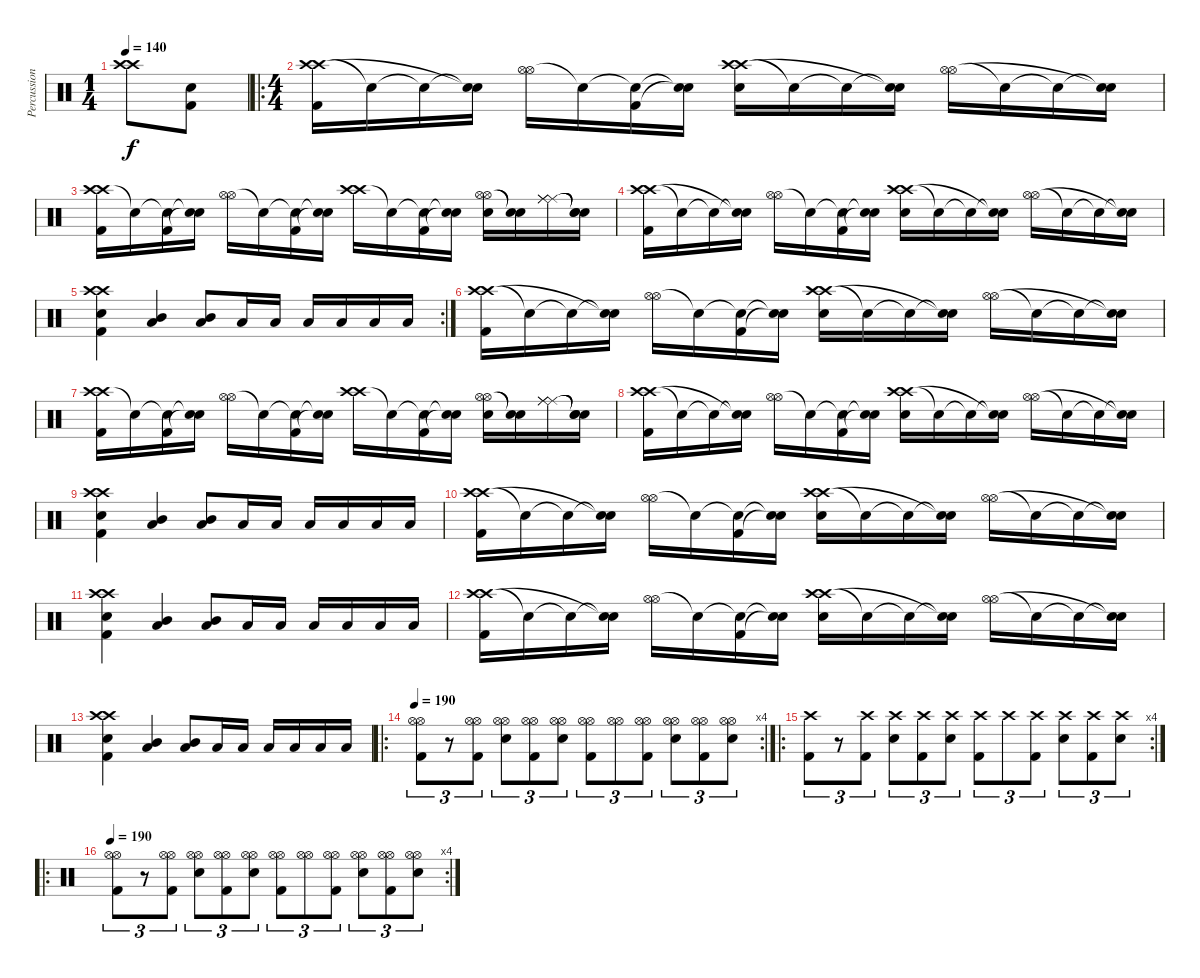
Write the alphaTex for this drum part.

\track ("Percussion" "Percussion") {instrument percussion}
\staff {score}
\articulation defaults
\ts (1 4)
\tempo 140
\clef neutral
\ks c
("Crash high (hit)" "Crash high (hit)").8{dy f} ("Electric Snare (hit)" "Kick (hit) 2").8 |
\ro
\ts (4 4)
("Crash high (hit)" "Crash high (hit)" "Kick (hit) 2").16{volume 12} "Snare (hit)"{t}.16 "Snare (hit)"{t}.16 ("Snare (hit)"{t} "Snare (hit)"{t}).16 ("Hi-Hat (open)" "Hi-Hat (open)").16 "Snare (hit)"{t}.16 ("Snare (hit)"{t} "Kick (hit) 2").16 ("Snare (hit)"{t} "Snare (hit)"{t}).16 ("Crash high (hit)" "Crash high (hit)" "Electric Snare (hit)").16 "Snare (hit)"{t}.16 "Snare (hit)"{t}.16 ("Snare (hit)"{t} "Snare (hit)"{t}).16 ("Hi-Hat (open)" "Hi-Hat (open)").16 "Snare (hit)"{t}.16 "Snare (hit)"{t}.16 ("Snare (hit)"{t} "Snare (hit)"{t}).16 |
("Crash high (hit)" "Crash high (hit)" "Kick (hit) 2").16 "Snare (hit)"{t}.16 ("Snare (hit)"{t} "Kick (hit) 2").16 ("Snare (hit)"{t} "Snare (hit)"{t}).16 ("Hi-Hat (open)" "Hi-Hat (open)").16 "Snare (hit)"{t}.16 ("Snare (hit)"{t} "Kick (hit) 2").16 ("Snare (hit)"{t} "Snare (hit)"{t}).16 ("Crash high (hit)" "Crash high (hit)").16 "Snare (hit)"{t}.16 ("Snare (hit)"{t} "Kick (hit) 2").16 ("Snare (hit)"{t} "Snare (hit)"{t}).16 ("Hi-Hat (open)" "Hi-Hat (open)" "Electric Snare (hit)").16 ("Snare (hit)"{t} "Snare (hit)"{t}).16 ("Ride (middle)" "Ride (middle)" "Ride (middle)").16 ("Snare (hit)"{t} "Snare (hit)"{t} "Snare (hit)"{t}).16 |
("Crash high (hit)" "Crash high (hit)" "Kick (hit) 2").16 "Snare (hit)"{t}.16 "Snare (hit)"{t}.16 ("Snare (hit)"{t} "Snare (hit)"{t}).16 ("Hi-Hat (open)" "Hi-Hat (open)").16 "Snare (hit)"{t}.16 ("Snare (hit)"{t} "Kick (hit) 2").16 ("Snare (hit)"{t} "Snare (hit)"{t}).16 ("Crash high (hit)" "Crash high (hit)" "Electric Snare (hit)").16 "Snare (hit)"{t}.16 "Snare (hit)"{t}.16 ("Snare (hit)"{t} "Snare (hit)"{t}).16 ("Hi-Hat (open)" "Hi-Hat (open)").16 "Snare (hit)"{t}.16 "Snare (hit)"{t}.16 ("Snare (hit)"{t} "Snare (hit)"{t}).16 |
\rc 2
("Crash high (hit)" "Crash high (hit)" "Electric Snare (hit)" "Kick (hit) 2").4 ("Low Tom (hit)" "Mid Tom (hit)").4 ("Low Tom (hit)" "Mid Tom (hit)").8 "Low Floor Tom (hit)".16 "Low Floor Tom (hit)".16 "Low Floor Tom (hit)".16 "Low Floor Tom (hit)".16 "Low Floor Tom (hit)".16 "Low Floor Tom (hit)".16 |
("Crash high (hit)" "Crash high (hit)" "Kick (hit) 2").16{volume 14} "Snare (hit)"{t}.16 "Snare (hit)"{t}.16 ("Snare (hit)"{t} "Snare (hit)"{t}).16 ("Hi-Hat (open)" "Hi-Hat (open)").16 "Snare (hit)"{t}.16 ("Snare (hit)"{t} "Kick (hit) 2").16 ("Snare (hit)"{t} "Snare (hit)"{t}).16 ("Crash high (hit)" "Crash high (hit)" "Electric Snare (hit)").16 "Snare (hit)"{t}.16 "Snare (hit)"{t}.16 ("Snare (hit)"{t} "Snare (hit)"{t}).16 ("Hi-Hat (open)" "Hi-Hat (open)").16 "Snare (hit)"{t}.16 "Snare (hit)"{t}.16 ("Snare (hit)"{t} "Snare (hit)"{t}).16 |
("Crash high (hit)" "Crash high (hit)" "Kick (hit) 2").16 "Snare (hit)"{t}.16 ("Snare (hit)"{t} "Kick (hit) 2").16 ("Snare (hit)"{t} "Snare (hit)"{t}).16 ("Hi-Hat (open)" "Hi-Hat (open)").16 "Snare (hit)"{t}.16 ("Snare (hit)"{t} "Kick (hit) 2").16 ("Snare (hit)"{t} "Snare (hit)"{t}).16 ("Crash high (hit)" "Crash high (hit)").16 "Snare (hit)"{t}.16 ("Snare (hit)"{t} "Kick (hit) 2").16 ("Snare (hit)"{t} "Snare (hit)"{t}).16 ("Hi-Hat (open)" "Hi-Hat (open)" "Electric Snare (hit)").16 ("Snare (hit)"{t} "Snare (hit)"{t}).16 ("Ride (middle)" "Ride (middle)" "Ride (middle)").16 ("Snare (hit)"{t} "Snare (hit)"{t} "Snare (hit)"{t}).16 |
("Crash high (hit)" "Crash high (hit)" "Kick (hit) 2").16 "Snare (hit)"{t}.16 "Snare (hit)"{t}.16 ("Snare (hit)"{t} "Snare (hit)"{t}).16 ("Hi-Hat (open)" "Hi-Hat (open)").16 "Snare (hit)"{t}.16 ("Snare (hit)"{t} "Kick (hit) 2").16 ("Snare (hit)"{t} "Snare (hit)"{t}).16 ("Crash high (hit)" "Crash high (hit)" "Electric Snare (hit)").16 "Snare (hit)"{t}.16 "Snare (hit)"{t}.16 ("Snare (hit)"{t} "Snare (hit)"{t}).16 ("Hi-Hat (open)" "Hi-Hat (open)").16 "Snare (hit)"{t}.16 "Snare (hit)"{t}.16 ("Snare (hit)"{t} "Snare (hit)"{t}).16 |
("Crash high (hit)" "Crash high (hit)" "Electric Snare (hit)" "Kick (hit) 2").4 ("Low Tom (hit)" "Mid Tom (hit)").4 ("Low Tom (hit)" "Mid Tom (hit)").8 "Low Floor Tom (hit)".16 "Low Floor Tom (hit)".16 "Low Floor Tom (hit)".16 "Low Floor Tom (hit)".16 "Low Floor Tom (hit)".16 "Low Floor Tom (hit)".16 |
("Crash high (hit)" "Crash high (hit)" "Kick (hit) 2").16{volume 14} "Snare (hit)"{t}.16 "Snare (hit)"{t}.16 ("Snare (hit)"{t} "Snare (hit)"{t}).16 ("Hi-Hat (open)" "Hi-Hat (open)").16 "Snare (hit)"{t}.16 ("Snare (hit)"{t} "Kick (hit) 2").16 ("Snare (hit)"{t} "Snare (hit)"{t}).16 ("Crash high (hit)" "Crash high (hit)" "Electric Snare (hit)").16 "Snare (hit)"{t}.16 "Snare (hit)"{t}.16 ("Snare (hit)"{t} "Snare (hit)"{t}).16 ("Hi-Hat (open)" "Hi-Hat (open)").16 "Snare (hit)"{t}.16 "Snare (hit)"{t}.16 ("Snare (hit)"{t} "Snare (hit)"{t}).16 |
("Crash high (hit)" "Crash high (hit)" "Electric Snare (hit)" "Kick (hit) 2").4 ("Low Tom (hit)" "Mid Tom (hit)").4 ("Low Tom (hit)" "Mid Tom (hit)").8 "Low Floor Tom (hit)".16 "Low Floor Tom (hit)".16 "Low Floor Tom (hit)".16 "Low Floor Tom (hit)".16 "Low Floor Tom (hit)".16 "Low Floor Tom (hit)".16 |
("Crash high (hit)" "Crash high (hit)" "Kick (hit) 2").16{volume 14} "Snare (hit)"{t}.16 "Snare (hit)"{t}.16 ("Snare (hit)"{t} "Snare (hit)"{t}).16 ("Hi-Hat (open)" "Hi-Hat (open)").16 "Snare (hit)"{t}.16 ("Snare (hit)"{t} "Kick (hit) 2").16 ("Snare (hit)"{t} "Snare (hit)"{t}).16 ("Crash high (hit)" "Crash high (hit)" "Electric Snare (hit)").16 "Snare (hit)"{t}.16 "Snare (hit)"{t}.16 ("Snare (hit)"{t} "Snare (hit)"{t}).16 ("Hi-Hat (open)" "Hi-Hat (open)").16 "Snare (hit)"{t}.16 "Snare (hit)"{t}.16 ("Snare (hit)"{t} "Snare (hit)"{t}).16 |
("Crash high (hit)" "Crash high (hit)" "Electric Snare (hit)" "Kick (hit) 2").4 ("Low Tom (hit)" "Mid Tom (hit)").4 ("Low Tom (hit)" "Mid Tom (hit)").8 "Low Floor Tom (hit)".16 "Low Floor Tom (hit)".16 "Low Floor Tom (hit)".16 "Low Floor Tom (hit)".16 "Low Floor Tom (hit)".16 "Low Floor Tom (hit)".16 |
\ro
\rc 4
\tempo 190
("Hi-Hat (open)" "Hi-Hat (open)" "Kick (hit) 2").8{tu (3 2)} r.8{tu (3 2)} ("Hi-Hat (open)" "Hi-Hat (open)" "Kick (hit) 2").8{tu (3 2)} ("Hi-Hat (open)" "Hi-Hat (open)" "Electric Snare (hit)").8{tu (3 2)} ("Hi-Hat (open)" "Hi-Hat (open)" "Kick (hit) 2").8{tu (3 2)} ("Hi-Hat (open)" "Hi-Hat (open)" "Electric Snare (hit)").8{tu (3 2)} ("Hi-Hat (open)" "Hi-Hat (open)" "Kick (hit) 2").8{tu (3 2)} ("Hi-Hat (open)" "Hi-Hat (open)").8{tu (3 2)} ("Hi-Hat (open)" "Hi-Hat (open)" "Kick (hit) 2").8{tu (3 2)} ("Hi-Hat (open)" "Hi-Hat (open)" "Electric Snare (hit)").8{tu (3 2)} ("Hi-Hat (open)" "Hi-Hat (open)" "Kick (hit) 2").8{tu (3 2)} ("Hi-Hat (open)" "Hi-Hat (open)" "Electric Snare (hit)").8{tu (3 2)} |
\ro
\rc 4
("Crash high (hit)" "Kick (hit) 2").8{tu (3 2)} r.8{tu (3 2)} ("Crash high (hit)" "Kick (hit) 2").8{tu (3 2)} ("Crash high (hit)" "Electric Snare (hit)").8{tu (3 2)} ("Crash high (hit)" "Kick (hit) 2").8{tu (3 2)} ("Crash high (hit)" "Electric Snare (hit)").8{tu (3 2)} ("Crash high (hit)" "Kick (hit) 2").8{tu (3 2)} "Crash high (hit)".8{tu (3 2)} ("Crash high (hit)" "Kick (hit) 2").8{tu (3 2)} ("Crash high (hit)" "Electric Snare (hit)").8{tu (3 2)} ("Crash high (hit)" "Kick (hit) 2").8{tu (3 2)} ("Crash high (hit)" "Electric Snare (hit)").8{tu (3 2)} |
\ro
\rc 4
\tempo 190
("Hi-Hat (open)" "Hi-Hat (open)" "Kick (hit) 2").8{tu (3 2)} r.8{tu (3 2)} ("Hi-Hat (open)" "Hi-Hat (open)" "Kick (hit) 2").8{tu (3 2)} ("Hi-Hat (open)" "Hi-Hat (open)" "Electric Snare (hit)").8{tu (3 2)} ("Hi-Hat (open)" "Hi-Hat (open)" "Kick (hit) 2").8{tu (3 2)} ("Hi-Hat (open)" "Hi-Hat (open)" "Electric Snare (hit)").8{tu (3 2)} ("Hi-Hat (open)" "Hi-Hat (open)" "Kick (hit) 2").8{tu (3 2)} ("Hi-Hat (open)" "Hi-Hat (open)").8{tu (3 2)} ("Hi-Hat (open)" "Hi-Hat (open)" "Kick (hit) 2").8{tu (3 2)} ("Hi-Hat (open)" "Hi-Hat (open)" "Electric Snare (hit)").8{tu (3 2)} ("Hi-Hat (open)" "Hi-Hat (open)" "Kick (hit) 2").8{tu (3 2)} ("Hi-Hat (open)" "Hi-Hat (open)" "Electric Snare (hit)").8{tu (3 2)}
